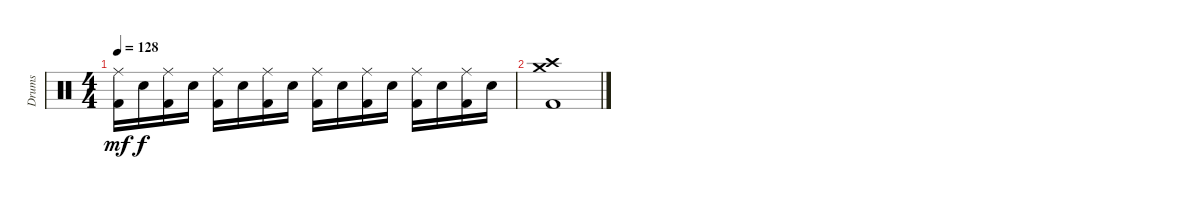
\track ("Drums" "Drums") {instrument percussion}
\staff {score}
\articulation defaults
\ts (4 4)
\tempo 128
\clef neutral
\ks c
("Ride (middle)" "Kick (hit) 2").16{dy mf} "Electric Snare (hit)".16{dy f} ("Ride (middle)" "Kick (hit) 2").16 "Electric Snare (hit)".16 ("Ride (middle)" "Kick (hit) 2").16 "Electric Snare (hit)".16 ("Ride (middle)" "Kick (hit) 2").16 "Electric Snare (hit)".16 ("Ride (middle)" "Kick (hit) 2").16 "Electric Snare (hit)".16 ("Ride (middle)" "Kick (hit) 2").16 "Electric Snare (hit)".16 ("Ride (middle)" "Kick (hit) 2").16 "Electric Snare (hit)".16 ("Ride (middle)" "Kick (hit) 2").16 "Electric Snare (hit)".16 |
("Crash medium (hit)" "Crash high (hit)" "Kick (hit) 2").1
